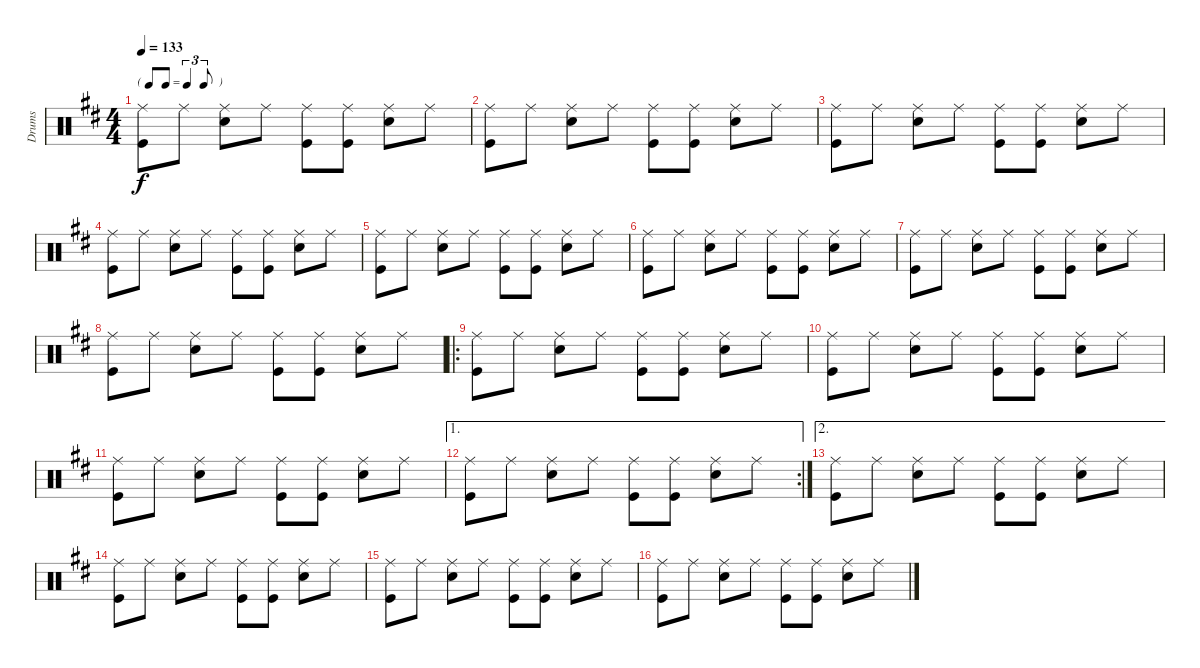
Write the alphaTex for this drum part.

\track ("Drums" "Drums") {instrument percussion}
\staff {score}
\articulation defaults
\ts (4 4)
\tf triplet8th
\tempo 133
\clef neutral
\ks d
("Ride (middle)" "Kick (hit)").8{dy f} "Ride (middle)".8 ("Ride (middle)" "Snare (hit) 2").8 "Ride (middle)".8 ("Ride (middle)" "Kick (hit)").8 ("Ride (middle)" "Kick (hit)").8 ("Ride (middle)" "Snare (hit) 2").8 "Ride (middle)".8 |
("Ride (middle)" "Kick (hit)").8 "Ride (middle)".8 ("Ride (middle)" "Snare (hit) 2").8 "Ride (middle)".8 ("Ride (middle)" "Kick (hit)").8 ("Ride (middle)" "Kick (hit)").8 ("Ride (middle)" "Snare (hit) 2").8 "Ride (middle)".8 |
("Ride (middle)" "Kick (hit)").8 "Ride (middle)".8 ("Ride (middle)" "Snare (hit) 2").8 "Ride (middle)".8 ("Ride (middle)" "Kick (hit)").8 ("Ride (middle)" "Kick (hit)").8 ("Ride (middle)" "Snare (hit) 2").8 "Ride (middle)".8 |
("Ride (middle)" "Kick (hit)").8 "Ride (middle)".8 ("Ride (middle)" "Snare (hit) 2").8 "Ride (middle)".8 ("Ride (middle)" "Kick (hit)").8 ("Ride (middle)" "Kick (hit)").8 ("Ride (middle)" "Snare (hit) 2").8 "Ride (middle)".8 |
("Ride (middle)" "Kick (hit)").8 "Ride (middle)".8 ("Ride (middle)" "Snare (hit) 2").8 "Ride (middle)".8 ("Ride (middle)" "Kick (hit)").8 ("Ride (middle)" "Kick (hit)").8 ("Ride (middle)" "Snare (hit) 2").8 "Ride (middle)".8 |
("Ride (middle)" "Kick (hit)").8 "Ride (middle)".8 ("Ride (middle)" "Snare (hit) 2").8 "Ride (middle)".8 ("Ride (middle)" "Kick (hit)").8 ("Ride (middle)" "Kick (hit)").8 ("Ride (middle)" "Snare (hit) 2").8 "Ride (middle)".8 |
("Ride (middle)" "Kick (hit)").8 "Ride (middle)".8 ("Ride (middle)" "Snare (hit) 2").8 "Ride (middle)".8 ("Ride (middle)" "Kick (hit)").8 ("Ride (middle)" "Kick (hit)").8 ("Ride (middle)" "Snare (hit) 2").8 "Ride (middle)".8 |
("Ride (middle)" "Kick (hit)").8 "Ride (middle)".8 ("Ride (middle)" "Snare (hit) 2").8 "Ride (middle)".8 ("Ride (middle)" "Kick (hit)").8 ("Ride (middle)" "Kick (hit)").8 ("Ride (middle)" "Snare (hit) 2").8 "Ride (middle)".8 |
\ro
("Ride (middle)" "Kick (hit)").8 "Ride (middle)".8 ("Ride (middle)" "Snare (hit) 2").8 "Ride (middle)".8 ("Ride (middle)" "Kick (hit)").8 ("Ride (middle)" "Kick (hit)").8 ("Ride (middle)" "Snare (hit) 2").8 "Ride (middle)".8 |
("Ride (middle)" "Kick (hit)").8 "Ride (middle)".8 ("Ride (middle)" "Snare (hit) 2").8 "Ride (middle)".8 ("Ride (middle)" "Kick (hit)").8 ("Ride (middle)" "Kick (hit)").8 ("Ride (middle)" "Snare (hit) 2").8 "Ride (middle)".8 |
("Ride (middle)" "Kick (hit)").8 "Ride (middle)".8 ("Ride (middle)" "Snare (hit) 2").8 "Ride (middle)".8 ("Ride (middle)" "Kick (hit)").8 ("Ride (middle)" "Kick (hit)").8 ("Ride (middle)" "Snare (hit) 2").8 "Ride (middle)".8 |
\ae 1
\rc 2
("Ride (middle)" "Kick (hit)").8 "Ride (middle)".8 ("Ride (middle)" "Snare (hit) 2").8 "Ride (middle)".8 ("Ride (middle)" "Kick (hit)").8 ("Ride (middle)" "Kick (hit)").8 ("Ride (middle)" "Snare (hit) 2").8 "Ride (middle)".8 |
\ae 2
("Ride (middle)" "Kick (hit)").8 "Ride (middle)".8 ("Ride (middle)" "Snare (hit) 2").8 "Ride (middle)".8 ("Ride (middle)" "Kick (hit)").8 ("Ride (middle)" "Kick (hit)").8 ("Ride (middle)" "Snare (hit) 2").8 "Ride (middle)".8 |
("Ride (middle)" "Kick (hit)").8 "Ride (middle)".8 ("Ride (middle)" "Snare (hit) 2").8 "Ride (middle)".8 ("Ride (middle)" "Kick (hit)").8 ("Ride (middle)" "Kick (hit)").8 ("Ride (middle)" "Snare (hit) 2").8 "Ride (middle)".8 |
("Ride (middle)" "Kick (hit)").8 "Ride (middle)".8 ("Ride (middle)" "Snare (hit) 2").8 "Ride (middle)".8 ("Ride (middle)" "Kick (hit)").8 ("Ride (middle)" "Kick (hit)").8 ("Ride (middle)" "Snare (hit) 2").8 "Ride (middle)".8 |
("Ride (middle)" "Kick (hit)").8 "Ride (middle)".8 ("Ride (middle)" "Snare (hit) 2").8 "Ride (middle)".8 ("Ride (middle)" "Kick (hit)").8 ("Ride (middle)" "Kick (hit)").8 ("Ride (middle)" "Snare (hit) 2").8 "Ride (middle)".8
